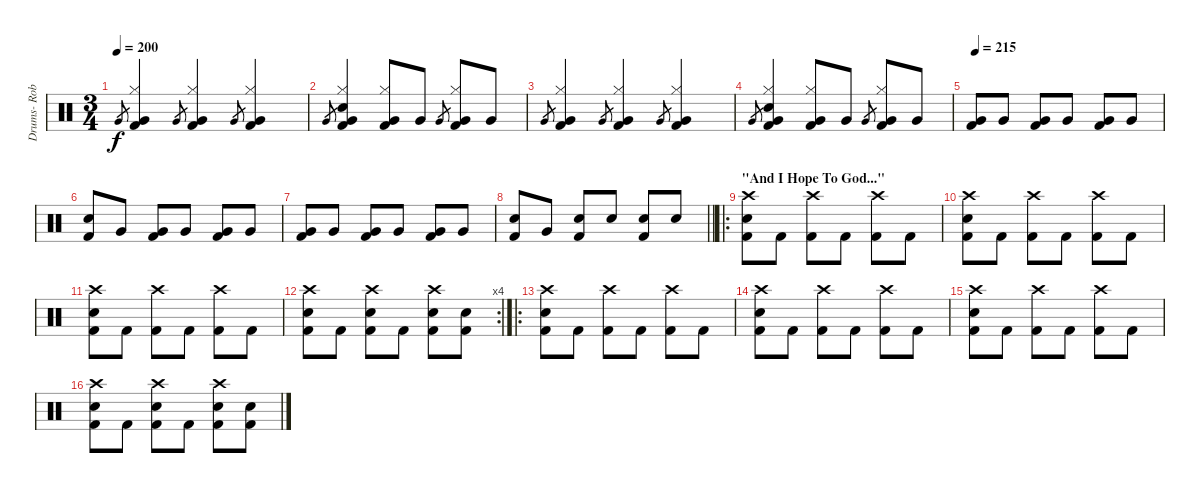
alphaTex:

\track ("Drums- Rob Rolfe" "Drums- Rob") {instrument percussion}
\staff {score}
\articulation defaults
\ts (3 4)
\tempo 200
\clef neutral
\ks c "Very Low Tom (hit)".8{gr dy f}
("Hi-Hat (closed)" "Very Low Tom (hit)" "Kick (hit) 2").4 "Very Low Tom (hit)".8{gr} ("Hi-Hat (closed)" "Very Low Tom (hit)" "Kick (hit) 2").4 "Very Low Tom (hit)".8{gr} ("Hi-Hat (closed)" "Very Low Tom (hit)" "Kick (hit) 2").4 |
"Very Low Tom (hit)".8{gr} ("Hi-Hat (closed)" "Snare (hit) 2" "Very Low Tom (hit)" "Kick (hit) 2").4 ("Hi-Hat (closed)" "Very Low Tom (hit)" "Kick (hit) 2").8 "Very Low Tom (hit)".8 "Very Low Tom (hit)".8{gr} ("Hi-Hat (closed)" "Very Low Tom (hit)" "Kick (hit) 2").8 "Very Low Tom (hit)".8 |
"Very Low Tom (hit)".8{gr} ("Hi-Hat (closed)" "Very Low Tom (hit)" "Kick (hit) 2").4 "Very Low Tom (hit)".8{gr} ("Hi-Hat (closed)" "Very Low Tom (hit)" "Kick (hit) 2").4 "Very Low Tom (hit)".8{gr} ("Hi-Hat (closed)" "Very Low Tom (hit)" "Kick (hit) 2").4 |
"Very Low Tom (hit)".8{gr} ("Hi-Hat (closed)" "Snare (hit) 2" "Very Low Tom (hit)" "Kick (hit) 2").4 ("Hi-Hat (closed)" "Very Low Tom (hit)" "Kick (hit) 2").8 "Very Low Tom (hit)".8 "Very Low Tom (hit)".8{gr} ("Hi-Hat (closed)" "Very Low Tom (hit)" "Kick (hit) 2").8 "Very Low Tom (hit)".8 |
\tempo 215
("Very Low Tom (hit)" "Kick (hit) 2").8 "Very Low Tom (hit)".8 ("Very Low Tom (hit)" "Kick (hit) 2").8 "Very Low Tom (hit)".8 ("Very Low Tom (hit)" "Kick (hit) 2").8 "Very Low Tom (hit)".8 |
("Snare (hit) 2" "Kick (hit) 2").8 "Very Low Tom (hit)".8 ("Very Low Tom (hit)" "Kick (hit) 2").8 "Very Low Tom (hit)".8 ("Very Low Tom (hit)" "Kick (hit) 2").8 "Very Low Tom (hit)".8 |
("Very Low Tom (hit)" "Kick (hit) 2").8 "Very Low Tom (hit)".8 ("Very Low Tom (hit)" "Kick (hit) 2").8 "Very Low Tom (hit)".8 ("Very Low Tom (hit)" "Kick (hit) 2").8 "Very Low Tom (hit)".8 |
\barLineRight lightlight
("Snare (hit) 2" "Kick (hit) 2").8 "Very Low Tom (hit)".8 ("Snare (hit) 2" "Kick (hit) 2").8 "Snare (hit) 2".8 ("Snare (hit) 2" "Kick (hit) 2").8 "Snare (hit) 2".8 |
\ro
\section ("" "\"And I Hope To God...\"")
("Crash high (hit)" "Snare (hit) 2" "Kick (hit) 2").8 "Kick (hit) 2".8 ("Crash high (hit)" "Kick (hit) 2").8 "Kick (hit) 2".8 ("Crash high (hit)" "Kick (hit) 2").8 "Kick (hit) 2".8 |
("Crash high (hit)" "Snare (hit) 2" "Kick (hit) 2").8 "Kick (hit) 2".8 ("Crash high (hit)" "Kick (hit) 2").8 "Kick (hit) 2".8 ("Crash high (hit)" "Kick (hit) 2").8 "Kick (hit) 2".8 |
("Crash high (hit)" "Snare (hit) 2" "Kick (hit) 2").8 "Kick (hit) 2".8 ("Crash high (hit)" "Kick (hit) 2").8 "Kick (hit) 2".8 ("Crash high (hit)" "Kick (hit) 2").8 "Kick (hit) 2".8 |
\rc 4
("Crash high (hit)" "Snare (hit) 2" "Kick (hit) 2").8 "Kick (hit) 2".8 ("Crash high (hit)" "Snare (hit) 2" "Kick (hit) 2").8 "Kick (hit) 2".8 ("Crash high (hit)" "Snare (hit) 2" "Kick (hit) 2").8 ("Snare (hit) 2" "Kick (hit) 2").8 |
\ro
("Crash high (hit)" "Snare (hit) 2" "Kick (hit) 2").8 "Kick (hit) 2".8 ("Crash high (hit)" "Kick (hit) 2").8 "Kick (hit) 2".8 ("Crash high (hit)" "Kick (hit) 2").8 "Kick (hit) 2".8 |
("Crash high (hit)" "Snare (hit) 2" "Kick (hit) 2").8 "Kick (hit) 2".8 ("Crash high (hit)" "Kick (hit) 2").8 "Kick (hit) 2".8 ("Crash high (hit)" "Kick (hit) 2").8 "Kick (hit) 2".8 |
("Crash high (hit)" "Snare (hit) 2" "Kick (hit) 2").8 "Kick (hit) 2".8 ("Crash high (hit)" "Kick (hit) 2").8 "Kick (hit) 2".8 ("Crash high (hit)" "Kick (hit) 2").8 "Kick (hit) 2".8 |
("Crash high (hit)" "Snare (hit) 2" "Kick (hit) 2").8 "Kick (hit) 2".8 ("Crash high (hit)" "Snare (hit) 2" "Kick (hit) 2").8 "Kick (hit) 2".8 ("Crash high (hit)" "Snare (hit) 2" "Kick (hit) 2").8 ("Snare (hit) 2" "Kick (hit) 2").8
